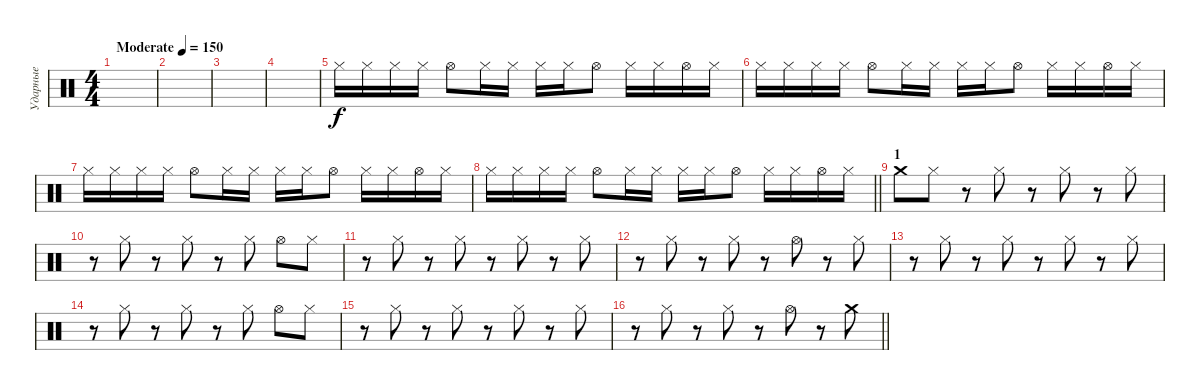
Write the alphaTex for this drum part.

\track ("Ударные" "Ударные") {instrument percussion}
\staff {score}
\articulation defaults
\ts (4 4)
\tempo (150 "Moderate")
\clef neutral
\ks c
|
|
|
|
"Hi-Hat (closed)".16 "Hi-Hat (closed)".16 "Hi-Hat (closed)".16 "Hi-Hat (closed)".16 "Hi-Hat (open)".8 "Hi-Hat (closed)".16 "Hi-Hat (closed)".16 "Hi-Hat (closed)".16 "Hi-Hat (closed)".16 "Hi-Hat (open)".8 "Hi-Hat (closed)".16 "Hi-Hat (closed)".16 "Hi-Hat (open)".16 "Hi-Hat (closed)".16 |
"Hi-Hat (closed)".16 "Hi-Hat (closed)".16 "Hi-Hat (closed)".16 "Hi-Hat (closed)".16 "Hi-Hat (open)".8 "Hi-Hat (closed)".16 "Hi-Hat (closed)".16 "Hi-Hat (closed)".16 "Hi-Hat (closed)".16 "Hi-Hat (open)".8 "Hi-Hat (closed)".16 "Hi-Hat (closed)".16 "Hi-Hat (open)".16 "Hi-Hat (closed)".16 |
"Hi-Hat (closed)".16 "Hi-Hat (closed)".16 "Hi-Hat (closed)".16 "Hi-Hat (closed)".16 "Hi-Hat (open)".8 "Hi-Hat (closed)".16 "Hi-Hat (closed)".16 "Hi-Hat (closed)".16 "Hi-Hat (closed)".16 "Hi-Hat (open)".8 "Hi-Hat (closed)".16 "Hi-Hat (closed)".16 "Hi-Hat (open)".16 "Hi-Hat (closed)".16 |
\barLineRight lightlight "Hi-Hat (closed)".16 "Hi-Hat (closed)".16 "Hi-Hat (closed)".16 "Hi-Hat (closed)".16 "Hi-Hat (open)".8 "Hi-Hat (closed)".16 "Hi-Hat (closed)".16 "Hi-Hat (closed)".16 "Hi-Hat (closed)".16 "Hi-Hat (open)".8 "Hi-Hat (closed)".16 "Hi-Hat (closed)".16 "Hi-Hat (open)".16 "Hi-Hat (closed)".16
|
\section ("" "1")
"Crash medium (hit)".8 "Hi-Hat (closed)".8 r.8 "Hi-Hat (closed)".8 r.8 "Hi-Hat (closed)".8 r.8 "Hi-Hat (closed)".8 |
r.8 "Hi-Hat (closed)".8 r.8 "Hi-Hat (closed)".8 r.8 "Hi-Hat (closed)".8 "Hi-Hat (open)".8 "Hi-Hat (closed)".8 |
r.8 "Hi-Hat (closed)".8 r.8 "Hi-Hat (closed)".8 r.8 "Hi-Hat (closed)".8 r.8 "Hi-Hat (closed)".8 |
r.8 "Hi-Hat (closed)".8 r.8 "Hi-Hat (closed)".8 r.8 "Hi-Hat (open)".8 r.8 "Hi-Hat (closed)".8 |
r.8 "Hi-Hat (closed)".8 r.8 "Hi-Hat (closed)".8 r.8 "Hi-Hat (closed)".8 r.8 "Hi-Hat (closed)".8 |
r.8 "Hi-Hat (closed)".8 r.8 "Hi-Hat (closed)".8 r.8 "Hi-Hat (closed)".8 "Hi-Hat (open)".8 "Hi-Hat (closed)".8 |
r.8 "Hi-Hat (closed)".8 r.8 "Hi-Hat (closed)".8 r.8 "Hi-Hat (closed)".8 r.8 "Hi-Hat (closed)".8 |
\barLineRight lightlight
r.8 "Hi-Hat (closed)".8 r.8 "Hi-Hat (closed)".8 r.8 "Hi-Hat (open)".8 r.8 "Crash medium (hit)".8
